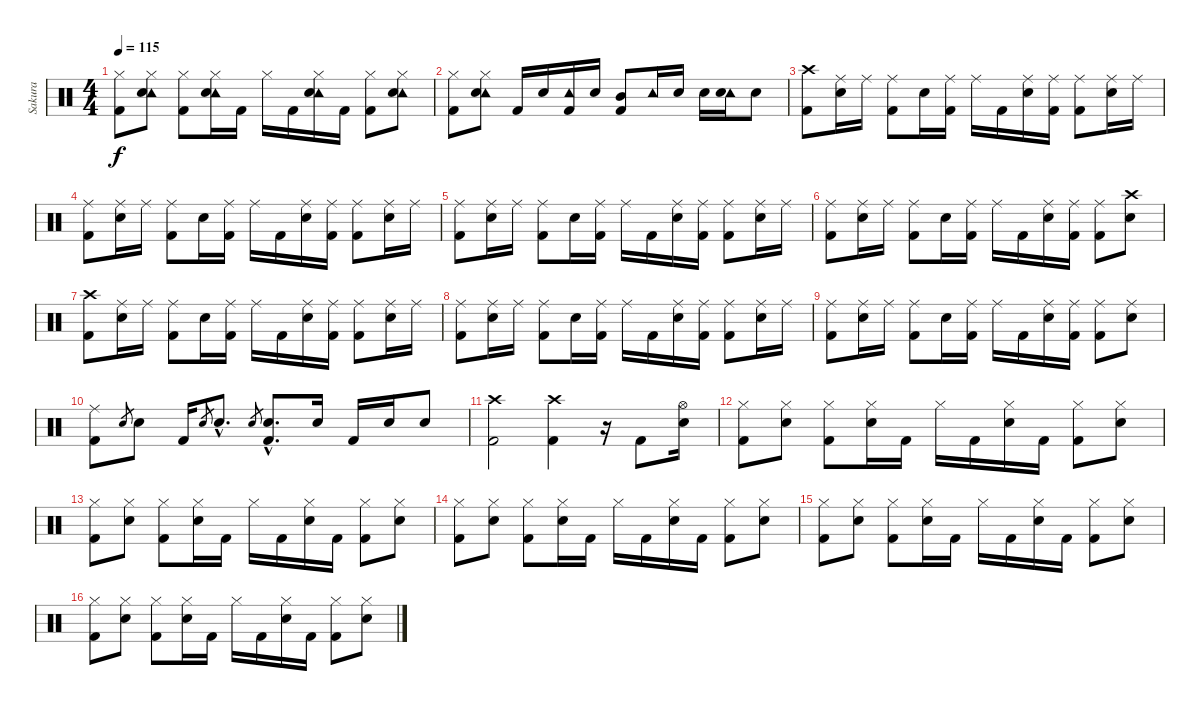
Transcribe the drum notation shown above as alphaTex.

\track ("Sakura" "Sakura") {instrument percussion}
\staff {score}
\articulation defaults
\ts (4 4)
\tempo 115
\clef neutral
\ks c
("Hi-Hat (closed)" "Kick (hit) 2").8{dy f} ("Hi-Hat (closed)" "Tambourine (hit)" "Electric Snare (hit)").8 ("Hi-Hat (closed)" "Kick (hit) 2").8 ("Hi-Hat (closed)" "Tambourine (hit)" "Electric Snare (hit)").16 "Kick (hit) 2".16 "Hi-Hat (closed)".16 "Kick (hit) 2".16 ("Hi-Hat (closed)" "Tambourine (hit)" "Electric Snare (hit)").16 "Kick (hit) 2".16 ("Hi-Hat (closed)" "Kick (hit) 2").8 ("Hi-Hat (closed)" "Tambourine (hit)" "Electric Snare (hit)").8 |
("Hi-Hat (closed)" "Kick (hit) 2").8 ("Hi-Hat (closed)" "Tambourine (hit)" "Electric Snare (hit)").8 "Kick (hit) 2".16 "Electric Snare (hit)".16 ("Tambourine (hit)" "Kick (hit) 2").16 "Electric Snare (hit)".16 ("Mid Tom (hit)" "Kick (hit) 2").8 "Tambourine (hit)".16 "Electric Snare (hit)".16 "Electric Snare (hit)".16 ("Tambourine (hit)" "Electric Snare (hit)").16 "Electric Snare (hit)".8 |
("Crash high (hit)" "Kick (hit) 2").8 ("Ride (middle)" "Electric Snare (hit)").16 "Ride (middle)".16 ("Ride (middle)" "Kick (hit) 2").8 "Electric Snare (hit)".16 ("Ride (middle)" "Kick (hit) 2").16 "Ride (middle)".16 "Kick (hit) 2".16 ("Ride (middle)" "Electric Snare (hit)").16 ("Ride (middle)" "Kick (hit) 2").16 ("Ride (middle)" "Kick (hit) 2").8 ("Ride (middle)" "Electric Snare (hit)").16 "Ride (middle)".16 |
("Ride (middle)" "Kick (hit) 2").8 ("Ride (middle)" "Electric Snare (hit)").16 "Ride (middle)".16 ("Ride (middle)" "Kick (hit) 2").8 "Electric Snare (hit)".16 ("Ride (middle)" "Kick (hit) 2").16 "Ride (middle)".16 "Kick (hit) 2".16 ("Ride (middle)" "Electric Snare (hit)").16 ("Ride (middle)" "Kick (hit) 2").16 ("Ride (middle)" "Kick (hit) 2").8 ("Ride (middle)" "Electric Snare (hit)").16 "Ride (middle)".16 |
("Ride (middle)" "Kick (hit) 2").8 ("Ride (middle)" "Electric Snare (hit)").16 "Ride (middle)".16 ("Ride (middle)" "Kick (hit) 2").8 "Electric Snare (hit)".16 ("Ride (middle)" "Kick (hit) 2").16 "Ride (middle)".16 "Kick (hit) 2".16 ("Ride (middle)" "Electric Snare (hit)").16 ("Ride (middle)" "Kick (hit) 2").16 ("Ride (middle)" "Kick (hit) 2").8 ("Ride (middle)" "Electric Snare (hit)").16 "Ride (middle)".16 |
("Ride (middle)" "Kick (hit) 2").8 ("Ride (middle)" "Electric Snare (hit)").16 "Ride (middle)".16 ("Ride (middle)" "Kick (hit) 2").8 "Electric Snare (hit)".16 ("Ride (middle)" "Kick (hit) 2").16 "Ride (middle)".16 "Kick (hit) 2".16 ("Ride (middle)" "Electric Snare (hit)").16 ("Ride (middle)" "Kick (hit) 2").16 ("Ride (middle)" "Kick (hit) 2").8 ("Crash high (hit)" "Electric Snare (hit)").8 |
("Crash high (hit)" "Kick (hit) 2").8 ("Ride (middle)" "Electric Snare (hit)").16 "Ride (middle)".16 ("Ride (middle)" "Kick (hit) 2").8 "Electric Snare (hit)".16 ("Ride (middle)" "Kick (hit) 2").16 "Ride (middle)".16 "Kick (hit) 2".16 ("Ride (middle)" "Electric Snare (hit)").16 ("Ride (middle)" "Kick (hit) 2").16 ("Ride (middle)" "Kick (hit) 2").8 ("Ride (middle)" "Electric Snare (hit)").16 "Ride (middle)".16 |
("Ride (middle)" "Kick (hit) 2").8 ("Ride (middle)" "Electric Snare (hit)").16 "Ride (middle)".16 ("Ride (middle)" "Kick (hit) 2").8 "Electric Snare (hit)".16 ("Ride (middle)" "Kick (hit) 2").16 "Ride (middle)".16 "Kick (hit) 2".16 ("Ride (middle)" "Electric Snare (hit)").16 ("Ride (middle)" "Kick (hit) 2").16 ("Ride (middle)" "Kick (hit) 2").8 ("Ride (middle)" "Electric Snare (hit)").16 "Ride (middle)".16 |
("Ride (middle)" "Kick (hit) 2").8 ("Ride (middle)" "Electric Snare (hit)").16 "Ride (middle)".16 ("Ride (middle)" "Kick (hit) 2").8 "Electric Snare (hit)".16 ("Ride (middle)" "Kick (hit) 2").16 "Ride (middle)".16 "Kick (hit) 2".16 ("Ride (middle)" "Electric Snare (hit)").16 ("Ride (middle)" "Kick (hit) 2").16 ("Ride (middle)" "Kick (hit) 2").8 ("Ride (middle)" "Electric Snare (hit)").8 |
("Ride (middle)" "Kick (hit) 2").8 "Electric Snare (hit)".8{gr} "Electric Snare (hit)".8 "Kick (hit) 2".16 "Electric Snare (hit)".8{gr} "Electric Snare (hit)"{hac}.8{d} "Electric Snare (hit)".8{gr} ("Electric Snare (hit)"{hac} "Kick (hit) 2"{hac}).8{d} "Electric Snare (hit)".16 "Kick (hit) 2".16 "Electric Snare (hit)".16 "Electric Snare (hit)".8 |
("Crash high (hit)" "Kick (hit) 2").2 ("Crash high (hit)" "Kick (hit) 2").4 r.16 "Kick (hit) 2".8 ("Hi-Hat (open)" "Snare (hit) 2").16 |
("Hi-Hat (closed)" "Kick (hit) 2").8 ("Hi-Hat (closed)" "Electric Snare (hit)").8 ("Hi-Hat (closed)" "Kick (hit) 2").8 ("Hi-Hat (closed)" "Electric Snare (hit)").16 "Kick (hit) 2".16 "Hi-Hat (closed)".16 "Kick (hit) 2".16 ("Hi-Hat (closed)" "Electric Snare (hit)").16 "Kick (hit) 2".16 ("Hi-Hat (closed)" "Kick (hit) 2").8 ("Hi-Hat (closed)" "Electric Snare (hit)").8 |
("Hi-Hat (closed)" "Kick (hit) 2").8 ("Hi-Hat (closed)" "Electric Snare (hit)").8 ("Hi-Hat (closed)" "Kick (hit) 2").8 ("Hi-Hat (closed)" "Electric Snare (hit)").16 "Kick (hit) 2".16 "Hi-Hat (closed)".16 "Kick (hit) 2".16 ("Hi-Hat (closed)" "Electric Snare (hit)").16 "Kick (hit) 2".16 ("Hi-Hat (closed)" "Kick (hit) 2").8 ("Hi-Hat (closed)" "Electric Snare (hit)").8 |
("Hi-Hat (closed)" "Kick (hit) 2").8 ("Hi-Hat (closed)" "Electric Snare (hit)").8 ("Hi-Hat (closed)" "Kick (hit) 2").8 ("Hi-Hat (closed)" "Electric Snare (hit)").16 "Kick (hit) 2".16 "Hi-Hat (closed)".16 "Kick (hit) 2".16 ("Hi-Hat (closed)" "Electric Snare (hit)").16 "Kick (hit) 2".16 ("Hi-Hat (closed)" "Kick (hit) 2").8 ("Hi-Hat (closed)" "Electric Snare (hit)").8 |
("Hi-Hat (closed)" "Kick (hit) 2").8 ("Hi-Hat (closed)" "Electric Snare (hit)").8 ("Hi-Hat (closed)" "Kick (hit) 2").8 ("Hi-Hat (closed)" "Electric Snare (hit)").16 "Kick (hit) 2".16 "Hi-Hat (closed)".16 "Kick (hit) 2".16 ("Hi-Hat (closed)" "Electric Snare (hit)").16 "Kick (hit) 2".16 ("Hi-Hat (closed)" "Kick (hit) 2").8 ("Hi-Hat (closed)" "Electric Snare (hit)").8 |
("Hi-Hat (closed)" "Kick (hit) 2").8 ("Hi-Hat (closed)" "Electric Snare (hit)").8 ("Hi-Hat (closed)" "Kick (hit) 2").8 ("Hi-Hat (closed)" "Electric Snare (hit)").16 "Kick (hit) 2".16 "Hi-Hat (closed)".16 "Kick (hit) 2".16 ("Hi-Hat (closed)" "Electric Snare (hit)").16 "Kick (hit) 2".16 ("Hi-Hat (closed)" "Kick (hit) 2").8 ("Hi-Hat (closed)" "Electric Snare (hit)").8
